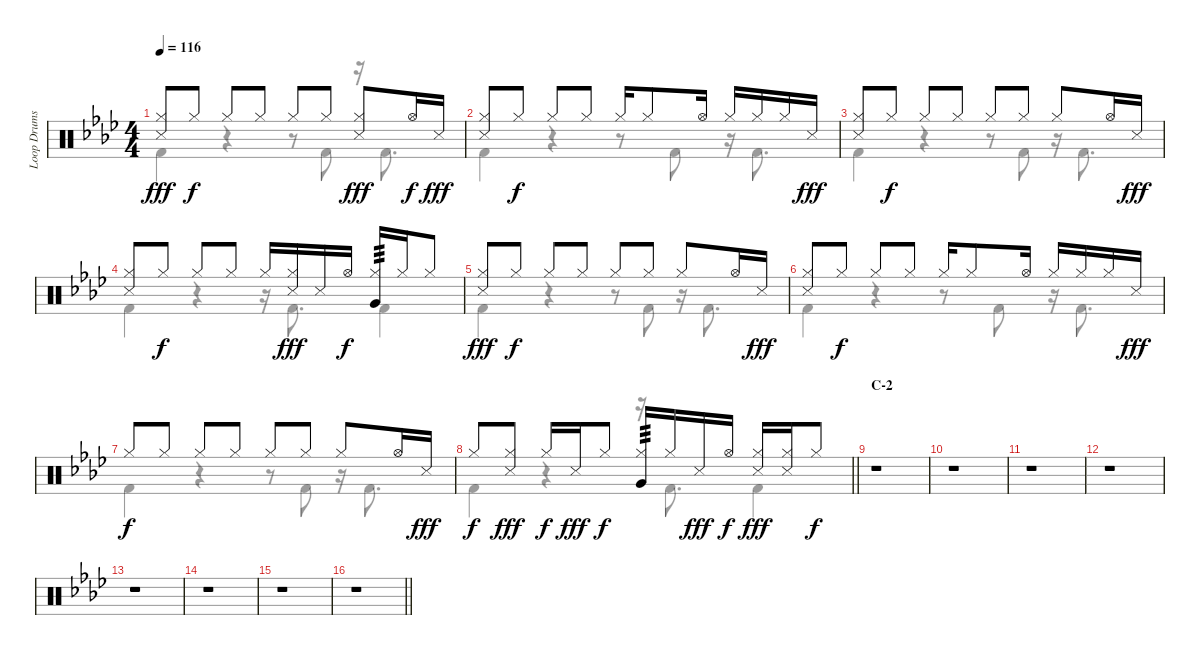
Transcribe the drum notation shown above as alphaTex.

\track ("Loop Drums I" "Loop Drums") {instrument percussion}
\staff {score}
\articulation defaults
\voice
\ts (4 4)
\tempo 116
\clef neutral
\ks ab
("Hi-Hat (closed)" "Snare (side stick) 3").8{dy fff} "Hi-Hat (closed)".8{dy f} "Hi-Hat (closed)".8 "Hi-Hat (closed)".8 "Hi-Hat (closed)".8 "Hi-Hat (closed)".8 ("Hi-Hat (closed)" "Snare (side stick) 3").8{dy fff} "Hi-Hat (open)".16{dy f} "Snare (side stick) 3".16{dy fff} |
("Hi-Hat (closed)" "Snare (side stick) 3").8 "Hi-Hat (closed)".8{dy f} "Hi-Hat (closed)".8 "Hi-Hat (closed)".8 "Hi-Hat (closed)".16 "Hi-Hat (closed)".8 "Hi-Hat (open)".16 "Hi-Hat (closed)".16 "Hi-Hat (closed)".16 "Hi-Hat (closed)".16 "Snare (side stick) 3".16{dy fff} |
("Hi-Hat (closed)" "Snare (side stick) 3").8 "Hi-Hat (closed)".8{dy f} "Hi-Hat (closed)".8 "Hi-Hat (closed)".8 "Hi-Hat (closed)".8 "Hi-Hat (closed)".8 "Hi-Hat (closed)".8 "Hi-Hat (open)".16 "Snare (side stick) 3".16{dy fff} |
("Hi-Hat (closed)" "Snare (side stick) 3").8 "Hi-Hat (closed)".8{dy f} "Hi-Hat (closed)".8 "Hi-Hat (closed)".8 "Hi-Hat (closed)".16 ("Hi-Hat (closed)" "Snare (side stick) 3").16{dy fff} "Snare (side stick) 3".16 "Hi-Hat (open)".16{dy f} ("Hi-Hat (closed)" "Very Low Tom (hit)").16{tp 3} "Hi-Hat (closed)".16 "Hi-Hat (closed)".8 |
("Hi-Hat (closed)" "Snare (side stick) 3").8{dy fff} "Hi-Hat (closed)".8{dy f} "Hi-Hat (closed)".8 "Hi-Hat (closed)".8 "Hi-Hat (closed)".8 "Hi-Hat (closed)".8 "Hi-Hat (closed)".8 "Hi-Hat (open)".16 "Snare (side stick) 3".16{dy fff} |
("Hi-Hat (closed)" "Snare (side stick) 3").8 "Hi-Hat (closed)".8{dy f} "Hi-Hat (closed)".8 "Hi-Hat (closed)".8 "Hi-Hat (closed)".16 "Hi-Hat (closed)".8 "Hi-Hat (open)".16 "Hi-Hat (closed)".16 "Hi-Hat (closed)".16 "Hi-Hat (closed)".16 "Snare (side stick) 3".16{dy fff} |
"Hi-Hat (closed)".8{dy f} "Hi-Hat (closed)".8 "Hi-Hat (closed)".8 "Hi-Hat (closed)".8 "Hi-Hat (closed)".8 "Hi-Hat (closed)".8 "Hi-Hat (closed)".8 "Hi-Hat (open)".16 "Snare (side stick) 3".16{dy fff} |
\barLineRight lightlight "Hi-Hat (closed)".8{dy f}
("Hi-Hat (closed)" "Snare (side stick) 3").8{dy fff} "Hi-Hat (closed)".16{dy f} "Snare (side stick) 3".16{dy fff} "Hi-Hat (closed)".8{dy f} ("Hi-Hat (closed)" "Very Low Tom (hit)").16{tp 3} "Hi-Hat (closed)".16 "Snare (side stick) 3".16{dy fff} "Hi-Hat (open)".16{dy f} ("Hi-Hat (closed)" "Snare (side stick) 3").16{dy fff} ("Hi-Hat (closed)" "Snare (side stick) 3").16 "Hi-Hat (closed)".8{dy f} |
\section ("" "C-2")
r.1 |
r.1 |
r.1 |
r.1 |
r.1 |
r.1 |
r.1 |
\barLineRight lightlight
r.1
\voice
\clef neutral
\ottava regular
\simile none
\ks ab "Kick (hit) 2".4{dy fff}
r.4 r.8 "Kick (hit) 2".8 r.16 "Kick (hit) 2".8{d} |
"Kick (hit) 2".4 r.4 r.8 "Kick (hit) 2".8 r.16 "Kick (hit) 2".8{d} |
"Kick (hit) 2".4 r.4 r.8 "Kick (hit) 2".8 r.16 "Kick (hit) 2".8{d} |
"Kick (hit) 2".4 r.4 r.16 "Kick (hit) 2".8{d} "Kick (hit) 2".4 |
"Kick (hit) 2".4 r.4 r.8 "Kick (hit) 2".8 r.16 "Kick (hit) 2".8{d} |
"Kick (hit) 2".4 r.4 r.8 "Kick (hit) 2".8 r.16 "Kick (hit) 2".8{d} |
"Kick (hit) 2".4 r.4 r.8 "Kick (hit) 2".8 r.16 "Kick (hit) 2".8{d} |
\barLineRight lightlight "Kick (hit) 2".4
r.4 r.16 "Kick (hit) 2".8{d} "Kick (hit) 2".4 |
r.1 |
r.1 |
r.1 |
r.1 |
r.1 |
r.1 |
r.1 |
\barLineRight lightlight
r.1
